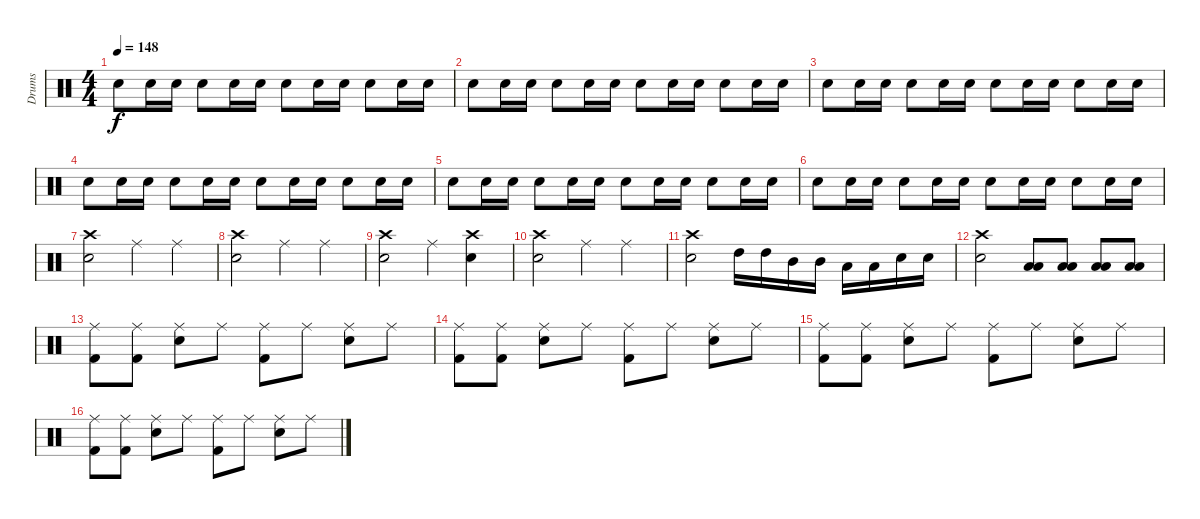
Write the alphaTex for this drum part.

\track ("Drums" "Drums") {instrument percussion}
\staff {score}
\articulation defaults
\ts (4 4)
\tempo 148
\clef neutral
\ks c "Snare (hit) 2".8{dy f} "Snare (hit) 2".16 "Snare (hit) 2".16 "Snare (hit) 2".8 "Snare (hit) 2".16 "Snare (hit) 2".16 "Snare (hit) 2".8 "Snare (hit) 2".16 "Snare (hit) 2".16 "Snare (hit) 2".8 "Snare (hit) 2".16 "Snare (hit) 2".16
|
"Snare (hit) 2".8 "Snare (hit) 2".16 "Snare (hit) 2".16 "Snare (hit) 2".8 "Snare (hit) 2".16 "Snare (hit) 2".16 "Snare (hit) 2".8 "Snare (hit) 2".16 "Snare (hit) 2".16 "Snare (hit) 2".8 "Snare (hit) 2".16 "Snare (hit) 2".16 |
"Snare (hit) 2".8 "Snare (hit) 2".16 "Snare (hit) 2".16 "Snare (hit) 2".8 "Snare (hit) 2".16 "Snare (hit) 2".16 "Snare (hit) 2".8 "Snare (hit) 2".16 "Snare (hit) 2".16 "Snare (hit) 2".8 "Snare (hit) 2".16 "Snare (hit) 2".16 |
"Snare (hit) 2".8 "Snare (hit) 2".16 "Snare (hit) 2".16 "Snare (hit) 2".8 "Snare (hit) 2".16 "Snare (hit) 2".16 "Snare (hit) 2".8 "Snare (hit) 2".16 "Snare (hit) 2".16 "Snare (hit) 2".8 "Snare (hit) 2".16 "Snare (hit) 2".16 |
"Snare (hit) 2".8 "Snare (hit) 2".16 "Snare (hit) 2".16 "Snare (hit) 2".8 "Snare (hit) 2".16 "Snare (hit) 2".16 "Snare (hit) 2".8 "Snare (hit) 2".16 "Snare (hit) 2".16 "Snare (hit) 2".8 "Snare (hit) 2".16 "Snare (hit) 2".16 |
"Snare (hit) 2".8 "Snare (hit) 2".16 "Snare (hit) 2".16 "Snare (hit) 2".8 "Snare (hit) 2".16 "Snare (hit) 2".16 "Snare (hit) 2".8 "Snare (hit) 2".16 "Snare (hit) 2".16 "Snare (hit) 2".8 "Snare (hit) 2".16 "Snare (hit) 2".16 |
("Snare (hit) 2" "Crash high (hit)").2{volume 10} "Ride (middle)".4 "Ride (middle)".4 |
("Snare (hit) 2" "Crash high (hit)").2 "Ride (middle)".4 "Ride (middle)".4 |
("Snare (hit) 2" "Crash high (hit)").2 "Ride (middle)".4 ("Crash high (hit)" "Snare (hit) 2").4 |
("Snare (hit) 2" "Crash high (hit)").2 "Ride (middle)".4 "Ride (middle)".4 |
("Crash high (hit)" "Snare (hit) 2").2 "High Tom (hit)".16 "High Tom (hit)".16 "Mid Tom (hit)".16 "Mid Tom (hit)".16 "Low Tom (hit)".16 "Low Tom (hit)".16 "Snare (hit) 2".16 "Snare (hit) 2".16 |
("Crash high (hit)" "Snare (hit) 2").2 ("Low Tom (hit)" "Low Floor Tom (hit)").8 ("Low Tom (hit)" "Low Floor Tom (hit)").8 ("Low Tom (hit)" "Low Floor Tom (hit)").8 ("Low Tom (hit)" "Low Floor Tom (hit)").8 |
("Ride (middle)" "Kick (hit) 2").8 ("Ride (middle)" "Kick (hit) 2").8 ("Ride (middle)" "Snare (hit) 2").8 "Ride (middle)".8 ("Ride (middle)" "Kick (hit) 2").8 "Ride (middle)".8 ("Ride (middle)" "Snare (hit) 2").8 "Ride (middle)".8 |
("Ride (middle)" "Kick (hit) 2").8 ("Ride (middle)" "Kick (hit) 2").8 ("Ride (middle)" "Snare (hit) 2").8 "Ride (middle)".8 ("Ride (middle)" "Kick (hit) 2").8 "Ride (middle)".8 ("Ride (middle)" "Snare (hit) 2").8 "Ride (middle)".8 |
("Ride (middle)" "Kick (hit) 2").8 ("Ride (middle)" "Kick (hit) 2").8 ("Ride (middle)" "Snare (hit) 2").8 "Ride (middle)".8 ("Ride (middle)" "Kick (hit) 2").8 "Ride (middle)".8 ("Ride (middle)" "Snare (hit) 2").8 "Ride (middle)".8 |
("Ride (middle)" "Kick (hit) 2").8 ("Ride (middle)" "Kick (hit) 2").8 ("Ride (middle)" "Snare (hit) 2").8 "Ride (middle)".8 ("Ride (middle)" "Kick (hit) 2").8 "Ride (middle)".8 ("Ride (middle)" "Snare (hit) 2").8 "Ride (middle)".8
